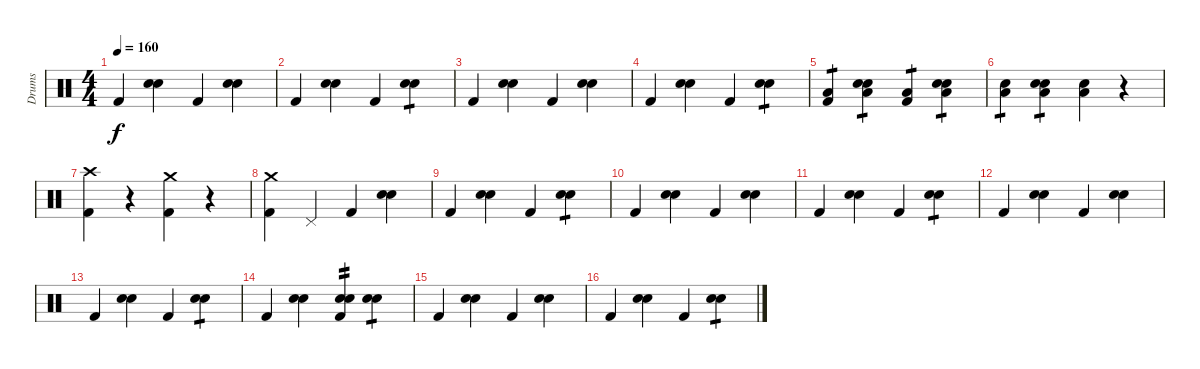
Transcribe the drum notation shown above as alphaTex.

\track ("Drums" "Drums") {instrument percussion}
\staff {score}
\articulation defaults
\ts (4 4)
\tempo 160
\clef neutral
\ks c "Kick (hit) 2".4{dy f}
("Snare (hit) 2" "Electric Snare (hit)").4 "Kick (hit) 2".4 ("Snare (hit) 2" "Electric Snare (hit)").4 |
"Kick (hit) 2".4 ("Snare (hit) 2" "Electric Snare (hit)").4 "Kick (hit) 2".4 ("Snare (hit) 2" "Electric Snare (hit)").4{tp 1} |
"Kick (hit) 2".4 ("Snare (hit) 2" "Electric Snare (hit)").4 "Kick (hit) 2".4 ("Snare (hit) 2" "Electric Snare (hit)").4 |
"Kick (hit) 2".4 ("Snare (hit) 2" "Electric Snare (hit)").4 "Kick (hit) 2".4 ("Snare (hit) 2" "Electric Snare (hit)").4{tp 1} |
("Kick (hit) 2" "Low Floor Tom (hit)").4{tp 1} ("Snare (hit) 2" "Electric Snare (hit)" "Low Floor Tom (hit)").4{tp 1} ("Kick (hit) 2" "Low Floor Tom (hit)").4{tp 1} ("Snare (hit) 2" "Electric Snare (hit)" "Low Floor Tom (hit)").4{tp 1} |
("Snare (hit) 2" "Low Floor Tom (hit)").4{tp 1} ("Snare (hit) 2" "Electric Snare (hit)" "Low Floor Tom (hit)").4{tp 1} ("Snare (hit) 2" "Low Floor Tom (hit)").4 r.4 |
("Kick (hit) 2" "Crash high (hit)").4 r.4 ("Kick (hit) 2" "Crash medium (hit)").4 r.4 |
("Kick (hit) 2" "Crash medium (hit)").4 "Pedal Hi-Hat (hit)".4 "Kick (hit) 2".4 ("Snare (hit) 2" "Electric Snare (hit)").4 |
"Kick (hit) 2".4 ("Snare (hit) 2" "Electric Snare (hit)").4 "Kick (hit) 2".4 ("Snare (hit) 2" "Electric Snare (hit)").4{tp 1} |
"Kick (hit) 2".4 ("Snare (hit) 2" "Electric Snare (hit)").4 "Kick (hit) 2".4 ("Snare (hit) 2" "Electric Snare (hit)").4 |
"Kick (hit) 2".4 ("Snare (hit) 2" "Electric Snare (hit)").4 "Kick (hit) 2".4 ("Snare (hit) 2" "Electric Snare (hit)").4{tp 1} |
"Kick (hit) 2".4 ("Snare (hit) 2" "Electric Snare (hit)").4 "Kick (hit) 2".4 ("Snare (hit) 2" "Electric Snare (hit)").4 |
"Kick (hit) 2".4 ("Snare (hit) 2" "Electric Snare (hit)").4 "Kick (hit) 2".4 ("Snare (hit) 2" "Electric Snare (hit)").4{tp 1} |
"Kick (hit) 2".4 ("Snare (hit) 2" "Electric Snare (hit)").4 ("Kick (hit) 2" "Snare (hit) 2" "Electric Snare (hit)").4{tp 2} ("Snare (hit) 2" "Electric Snare (hit)").4{tp 1} |
"Kick (hit) 2".4 ("Snare (hit) 2" "Electric Snare (hit)").4 "Kick (hit) 2".4 ("Snare (hit) 2" "Electric Snare (hit)").4 |
"Kick (hit) 2".4 ("Snare (hit) 2" "Electric Snare (hit)").4 "Kick (hit) 2".4 ("Snare (hit) 2" "Electric Snare (hit)").4{tp 1}
